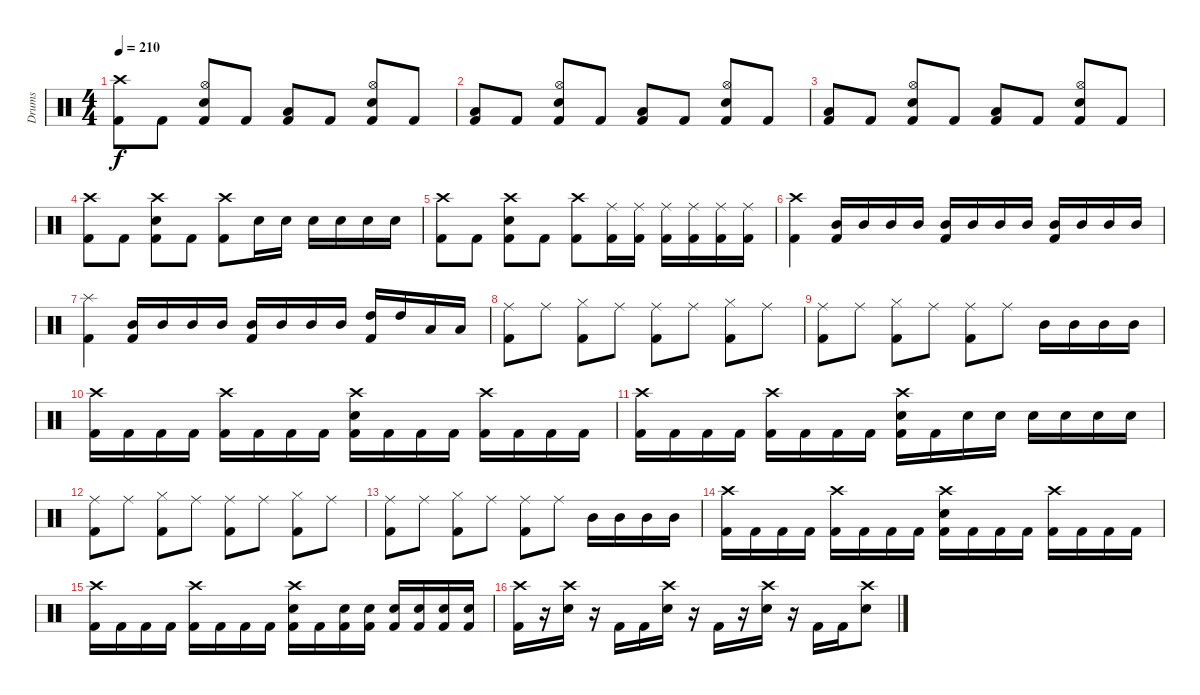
\track ("Drums" "Drums") {instrument percussion}
\staff {score}
\articulation defaults
\ts (4 4)
\tempo 210
\clef neutral
\ks c
("Crash high (hit)" "Kick (hit) 2").8{dy f} "Kick (hit) 2".8 ("Hi-Hat (open)" "Snare (hit) 2" "Kick (hit) 2").8 "Kick (hit) 2".8 ("Low Tom (hit)" "Kick (hit) 2").8 "Kick (hit) 2".8 ("Hi-Hat (open)" "Snare (hit) 2" "Kick (hit) 2").8 "Kick (hit) 2".8 |
("Low Tom (hit)" "Kick (hit) 2").8 "Kick (hit) 2".8 ("Hi-Hat (open)" "Snare (hit) 2" "Kick (hit) 2").8 "Kick (hit) 2".8 ("Low Tom (hit)" "Kick (hit) 2").8 "Kick (hit) 2".8 ("Hi-Hat (open)" "Snare (hit) 2" "Kick (hit) 2").8 "Kick (hit) 2".8 |
("Low Tom (hit)" "Kick (hit) 2").8 "Kick (hit) 2".8 ("Hi-Hat (open)" "Snare (hit) 2" "Kick (hit) 2").8 "Kick (hit) 2".8 ("Low Tom (hit)" "Kick (hit) 2").8 "Kick (hit) 2".8 ("Hi-Hat (open)" "Snare (hit) 2" "Kick (hit) 2").8 "Kick (hit) 2".8 |
("Crash high (hit)" "Kick (hit) 2").8 "Kick (hit) 2".8 ("Crash high (hit)" "Snare (hit) 2" "Kick (hit) 2").8 "Kick (hit) 2".8 ("Crash high (hit)" "Kick (hit) 2").8 "Snare (hit) 2".16 "Snare (hit) 2".16 "Snare (hit) 2".16 "Snare (hit) 2".16 "Snare (hit) 2".16 "Snare (hit) 2".16 |
("Crash high (hit)" "Kick (hit) 2").8 "Kick (hit) 2".8 ("Crash high (hit)" "Snare (hit) 2" "Kick (hit) 2").8 "Kick (hit) 2".8 ("Crash high (hit)" "Kick (hit) 2").8 ("Ride (middle)" "Kick (hit) 2").16 ("Ride (middle)" "Kick (hit) 2").16 ("Ride (middle)" "Kick (hit) 2").16 ("Ride (middle)" "Kick (hit) 2").16 ("Ride (middle)" "Kick (hit) 2").16 ("Ride (middle)" "Kick (hit) 2").16 |
("Crash high (hit)" "Kick (hit) 2").4 ("Mid Tom (hit)" "Kick (hit) 2").16 "Mid Tom (hit)".16 "Mid Tom (hit)".16 "Mid Tom (hit)".16 ("Mid Tom (hit)" "Kick (hit) 2").16 "Mid Tom (hit)".16 "Mid Tom (hit)".16 "Mid Tom (hit)".16 ("Mid Tom (hit)" "Kick (hit) 2").16 "Mid Tom (hit)".16 "Mid Tom (hit)".16 "Mid Tom (hit)".16 |
("Splash (hit)" "Kick (hit) 2").4 ("Mid Tom (hit)" "Kick (hit) 2").16 "Mid Tom (hit)".16 "Mid Tom (hit)".16 "Mid Tom (hit)".16 ("Mid Tom (hit)" "Kick (hit) 2").16 "Mid Tom (hit)".16 "Mid Tom (hit)".16 "Mid Tom (hit)".16 ("High Tom (hit)" "Kick (hit) 2").16 "High Tom (hit)".16 "Low Tom (hit)".16 "Low Tom (hit)".16 |
("Ride (middle)" "Kick (hit) 2").8 "Ride (middle)".8 ("Hi-Hat (closed)" "Kick (hit) 2").8 "Ride (middle)".8 ("Ride (middle)" "Kick (hit) 2").8 "Ride (middle)".8 ("Hi-Hat (closed)" "Kick (hit) 2").8 "Ride (middle)".8 |
("Ride (middle)" "Kick (hit) 2").8 "Ride (middle)".8 ("Hi-Hat (closed)" "Kick (hit) 2").8 "Ride (middle)".8 ("Ride (middle)" "Kick (hit) 2").8 "Ride (middle)".8 "Mid Tom (hit)".16 "Mid Tom (hit)".16 "Mid Tom (hit)".16 "Mid Tom (hit)".16 |
("Crash high (hit)" "Kick (hit) 2").16 "Kick (hit) 2".16 "Kick (hit) 2".16 "Kick (hit) 2".16 ("Crash high (hit)" "Kick (hit) 2").16 "Kick (hit) 2".16 "Kick (hit) 2".16 "Kick (hit) 2".16 ("Crash high (hit)" "Snare (hit) 2" "Kick (hit) 2").16 "Kick (hit) 2".16 "Kick (hit) 2".16 "Kick (hit) 2".16 ("Crash high (hit)" "Kick (hit) 2").16 "Kick (hit) 2".16 "Kick (hit) 2".16 "Kick (hit) 2".16 |
("Crash high (hit)" "Kick (hit) 2").16 "Kick (hit) 2".16 "Kick (hit) 2".16 "Kick (hit) 2".16 ("Crash high (hit)" "Kick (hit) 2").16 "Kick (hit) 2".16 "Kick (hit) 2".16 "Kick (hit) 2".16 ("Crash high (hit)" "Snare (hit) 2" "Kick (hit) 2").16 "Kick (hit) 2".16 "Snare (hit) 2".16 "Snare (hit) 2".16 "Snare (hit) 2".16 "Snare (hit) 2".16 "Snare (hit) 2".16 "Snare (hit) 2".16 |
("Ride (middle)" "Kick (hit) 2").8 "Ride (middle)".8 ("Hi-Hat (closed)" "Kick (hit) 2").8 "Ride (middle)".8 ("Ride (middle)" "Kick (hit) 2").8 "Ride (middle)".8 ("Hi-Hat (closed)" "Kick (hit) 2").8 "Ride (middle)".8 |
("Ride (middle)" "Kick (hit) 2").8 "Ride (middle)".8 ("Hi-Hat (closed)" "Kick (hit) 2").8 "Ride (middle)".8 ("Ride (middle)" "Kick (hit) 2").8 "Ride (middle)".8 "Mid Tom (hit)".16 "Mid Tom (hit)".16 "Mid Tom (hit)".16 "Mid Tom (hit)".16 |
("Crash high (hit)" "Kick (hit) 2").16 "Kick (hit) 2".16 "Kick (hit) 2".16 "Kick (hit) 2".16 ("Crash high (hit)" "Kick (hit) 2").16 "Kick (hit) 2".16 "Kick (hit) 2".16 "Kick (hit) 2".16 ("Crash high (hit)" "Snare (hit) 2" "Kick (hit) 2").16 "Kick (hit) 2".16 "Kick (hit) 2".16 "Kick (hit) 2".16 ("Crash high (hit)" "Kick (hit) 2").16 "Kick (hit) 2".16 "Kick (hit) 2".16 "Kick (hit) 2".16 |
("Crash high (hit)" "Kick (hit) 2").16 "Kick (hit) 2".16 "Kick (hit) 2".16 "Kick (hit) 2".16 ("Crash high (hit)" "Kick (hit) 2").16 "Kick (hit) 2".16 "Kick (hit) 2".16 "Kick (hit) 2".16 ("Crash high (hit)" "Snare (hit) 2" "Kick (hit) 2").16 "Kick (hit) 2".16 ("Snare (hit) 2" "Kick (hit) 2").16 ("Snare (hit) 2" "Kick (hit) 2").16 ("Snare (hit) 2" "Kick (hit) 2").16 ("Snare (hit) 2" "Kick (hit) 2").16 ("Snare (hit) 2" "Kick (hit) 2").16 ("Snare (hit) 2" "Kick (hit) 2").16 |
("Crash high (hit)" "Kick (hit) 2").16 r.16 ("Crash high (hit)" "Snare (hit) 2").16 r.16 "Kick (hit) 2".16 "Kick (hit) 2".16 ("Crash high (hit)" "Snare (hit) 2").16 r.16 "Kick (hit) 2".16 r.16 ("Crash high (hit)" "Snare (hit) 2").16 r.16 "Kick (hit) 2".16 "Kick (hit) 2".16 ("Crash high (hit)" "Snare (hit) 2").8
